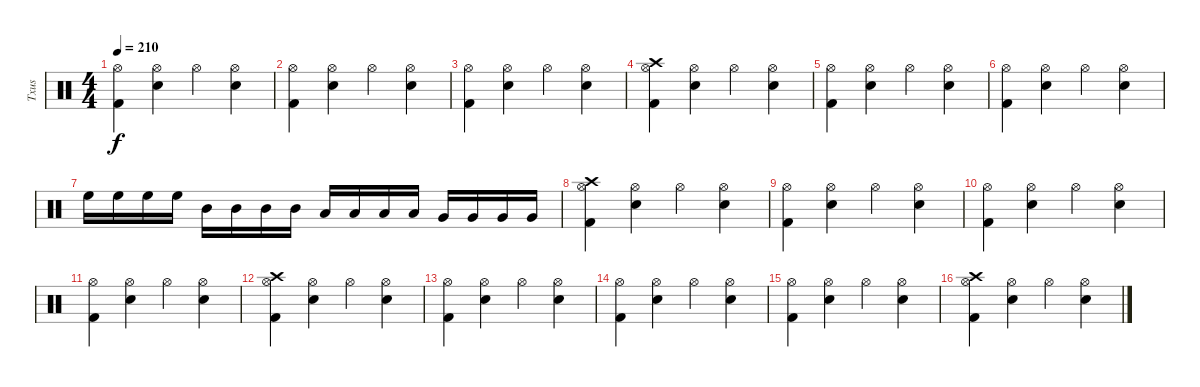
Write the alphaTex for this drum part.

\track ("Txus" "Txus") {instrument percussion}
\staff
\articulation defaults
\ts (4 4)
\tempo 210
\clef neutral
\ks c
("Hi-Hat (open)" "Kick (hit) 2").4{dy f} ("Hi-Hat (open)" "Electric Snare (hit)").4 "Hi-Hat (open)".4 ("Hi-Hat (open)" "Electric Snare (hit)").4 |
("Hi-Hat (open)" "Kick (hit) 2").4 ("Hi-Hat (open)" "Electric Snare (hit)").4 "Hi-Hat (open)".4 ("Hi-Hat (open)" "Electric Snare (hit)").4 |
("Hi-Hat (open)" "Kick (hit) 2").4 ("Hi-Hat (open)" "Electric Snare (hit)").4 "Hi-Hat (open)".4 ("Hi-Hat (open)" "Electric Snare (hit)").4 |
("Hi-Hat (open)" "Kick (hit) 2" "Crash high (hit)").4 ("Hi-Hat (open)" "Electric Snare (hit)").4 "Hi-Hat (open)".4 ("Hi-Hat (open)" "Electric Snare (hit)").4 |
("Hi-Hat (open)" "Kick (hit) 2").4 ("Hi-Hat (open)" "Electric Snare (hit)").4 "Hi-Hat (open)".4 ("Hi-Hat (open)" "Electric Snare (hit)").4 |
("Hi-Hat (open)" "Kick (hit) 2").4 ("Hi-Hat (open)" "Electric Snare (hit)").4 "Hi-Hat (open)".4 ("Hi-Hat (open)" "Electric Snare (hit)").4 |
"High Floor Tom (hit)".16 "High Floor Tom (hit)".16 "High Floor Tom (hit)".16 "High Floor Tom (hit)".16 "Mid Tom (hit)".16 "Mid Tom (hit)".16 "Mid Tom (hit)".16 "Mid Tom (hit)".16 "Low Tom (hit)".16 "Low Tom (hit)".16 "Low Tom (hit)".16 "Low Tom (hit)".16 "Very Low Tom (hit)".16 "Very Low Tom (hit)".16 "Very Low Tom (hit)".16 "Very Low Tom (hit)".16 |
("Hi-Hat (open)" "Kick (hit) 2" "Crash high (hit)").4 ("Hi-Hat (open)" "Electric Snare (hit)").4 "Hi-Hat (open)".4 ("Hi-Hat (open)" "Electric Snare (hit)").4 |
("Hi-Hat (open)" "Kick (hit) 2").4 ("Hi-Hat (open)" "Electric Snare (hit)").4 "Hi-Hat (open)".4 ("Hi-Hat (open)" "Electric Snare (hit)").4 |
("Hi-Hat (open)" "Kick (hit) 2").4 ("Hi-Hat (open)" "Electric Snare (hit)").4 "Hi-Hat (open)".4 ("Hi-Hat (open)" "Electric Snare (hit)").4 |
("Hi-Hat (open)" "Kick (hit) 2").4 ("Hi-Hat (open)" "Electric Snare (hit)").4 "Hi-Hat (open)".4 ("Hi-Hat (open)" "Electric Snare (hit)").4 |
("Hi-Hat (open)" "Kick (hit) 2" "Crash high (hit)").4 ("Hi-Hat (open)" "Electric Snare (hit)").4 "Hi-Hat (open)".4 ("Hi-Hat (open)" "Electric Snare (hit)").4 |
("Hi-Hat (open)" "Kick (hit) 2").4 ("Hi-Hat (open)" "Electric Snare (hit)").4 "Hi-Hat (open)".4 ("Hi-Hat (open)" "Electric Snare (hit)").4 |
("Hi-Hat (open)" "Kick (hit) 2").4 ("Hi-Hat (open)" "Electric Snare (hit)").4 "Hi-Hat (open)".4 ("Hi-Hat (open)" "Electric Snare (hit)").4 |
("Hi-Hat (open)" "Kick (hit) 2").4 ("Hi-Hat (open)" "Electric Snare (hit)").4 "Hi-Hat (open)".4 ("Hi-Hat (open)" "Electric Snare (hit)").4 |
("Hi-Hat (open)" "Kick (hit) 2" "Crash high (hit)").4 ("Hi-Hat (open)" "Electric Snare (hit)").4 "Hi-Hat (open)".4 ("Hi-Hat (open)" "Electric Snare (hit)").4
